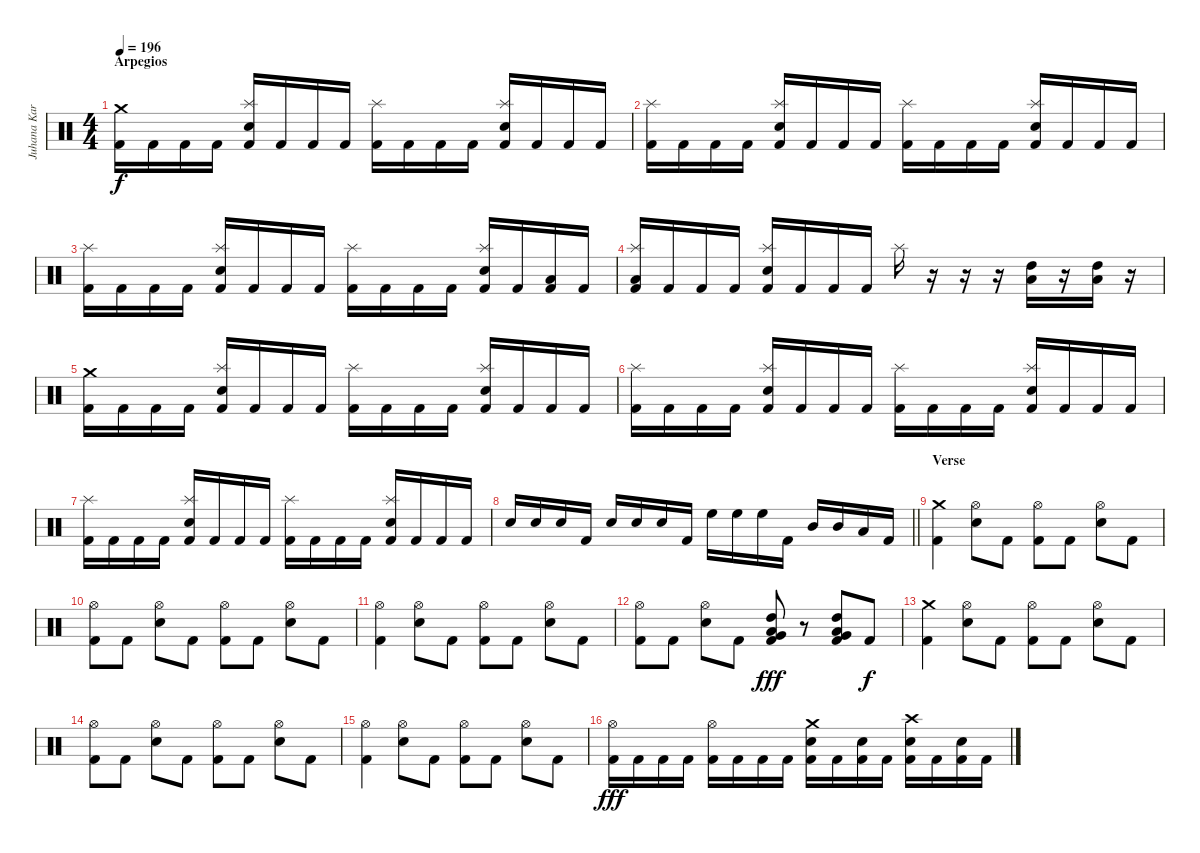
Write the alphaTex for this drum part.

\track ("Juhana Karlsson " "Juhana Kar") {instrument percussion}
\staff {score}
\articulation defaults
\ts (4 4)
\section ("" "Arpegios")
\tempo 196
\clef neutral
\ks c
("Crash medium (hit)" "Kick (hit) 2").16{dy f} "Kick (hit) 2".16 "Kick (hit) 2".16 "Kick (hit) 2".16 ("Splash (hit)" "Electric Snare (hit)" "Kick (hit) 2").16 "Kick (hit) 2".16 "Kick (hit) 2".16 "Kick (hit) 2".16 ("Splash (hit)" "Kick (hit) 2").16 "Kick (hit) 2".16 "Kick (hit) 2".16 "Kick (hit) 2".16 ("Splash (hit)" "Electric Snare (hit)" "Kick (hit) 2").16 "Kick (hit) 2".16 "Kick (hit) 2".16 "Kick (hit) 2".16 |
("Splash (hit)" "Kick (hit) 2").16 "Kick (hit) 2".16 "Kick (hit) 2".16 "Kick (hit) 2".16 ("Splash (hit)" "Electric Snare (hit)" "Kick (hit) 2").16 "Kick (hit) 2".16 "Kick (hit) 2".16 "Kick (hit) 2".16 ("Splash (hit)" "Kick (hit) 2").16 "Kick (hit) 2".16 "Kick (hit) 2".16 "Kick (hit) 2".16 ("Splash (hit)" "Electric Snare (hit)" "Kick (hit) 2").16 "Kick (hit) 2".16 "Kick (hit) 2".16 "Kick (hit) 2".16 |
("Splash (hit)" "Kick (hit) 2").16 "Kick (hit) 2".16 "Kick (hit) 2".16 "Kick (hit) 2".16 ("Splash (hit)" "Electric Snare (hit)" "Kick (hit) 2").16 "Kick (hit) 2".16 "Kick (hit) 2".16 "Kick (hit) 2".16 ("Splash (hit)" "Kick (hit) 2").16 "Kick (hit) 2".16 "Kick (hit) 2".16 "Kick (hit) 2".16 ("Splash (hit)" "Electric Snare (hit)" "Kick (hit) 2").16 "Kick (hit) 2".16 ("Low Tom (hit)" "Kick (hit) 2").16 "Kick (hit) 2".16 |
("Splash (hit)" "Low Tom (hit)" "Kick (hit) 2").16 "Kick (hit) 2".16 "Kick (hit) 2".16 "Kick (hit) 2".16 ("Splash (hit)" "Electric Snare (hit)" "Kick (hit) 2").16 "Kick (hit) 2".16 "Kick (hit) 2".16 "Kick (hit) 2".16 "Splash (hit)".16 r.16 r.16 r.16 ("High Tom (hit)" "Low Tom (hit)").16 r.16 ("High Tom (hit)" "Low Tom (hit)").16 r.16 |
("Crash medium (hit)" "Kick (hit) 2").16 "Kick (hit) 2".16 "Kick (hit) 2".16 "Kick (hit) 2".16 ("Splash (hit)" "Electric Snare (hit)" "Kick (hit) 2").16 "Kick (hit) 2".16 "Kick (hit) 2".16 "Kick (hit) 2".16 ("Splash (hit)" "Kick (hit) 2").16 "Kick (hit) 2".16 "Kick (hit) 2".16 "Kick (hit) 2".16 ("Splash (hit)" "Electric Snare (hit)" "Kick (hit) 2").16 "Kick (hit) 2".16 "Kick (hit) 2".16 "Kick (hit) 2".16 |
("Splash (hit)" "Kick (hit) 2").16 "Kick (hit) 2".16 "Kick (hit) 2".16 "Kick (hit) 2".16 ("Splash (hit)" "Electric Snare (hit)" "Kick (hit) 2").16 "Kick (hit) 2".16 "Kick (hit) 2".16 "Kick (hit) 2".16 ("Splash (hit)" "Kick (hit) 2").16 "Kick (hit) 2".16 "Kick (hit) 2".16 "Kick (hit) 2".16 ("Splash (hit)" "Electric Snare (hit)" "Kick (hit) 2").16 "Kick (hit) 2".16 "Kick (hit) 2".16 "Kick (hit) 2".16 |
("Splash (hit)" "Kick (hit) 2").16 "Kick (hit) 2".16 "Kick (hit) 2".16 "Kick (hit) 2".16 ("Splash (hit)" "Electric Snare (hit)" "Kick (hit) 2").16 "Kick (hit) 2".16 "Kick (hit) 2".16 "Kick (hit) 2".16 ("Splash (hit)" "Kick (hit) 2").16 "Kick (hit) 2".16 "Kick (hit) 2".16 "Kick (hit) 2".16 ("Splash (hit)" "Electric Snare (hit)" "Kick (hit) 2").16 "Kick (hit) 2".16 "Kick (hit) 2".16 "Kick (hit) 2".16 |
\barLineRight lightlight "Electric Snare (hit)".16 "Electric Snare (hit)".16 "Electric Snare (hit)".16 "Kick (hit) 2".16 "Electric Snare (hit)".16 "Electric Snare (hit)".16 "Electric Snare (hit)".16 "Kick (hit) 2".16 "High Floor Tom (hit)".16 "High Floor Tom (hit)".16 "High Floor Tom (hit)".16 "Kick (hit) 2".16 "Mid Tom (hit)".16 "Mid Tom (hit)".16 "Low Tom (hit)".16 "Kick (hit) 2".16
|
\section ("" "Verse")
("Crash medium (hit)" "Kick (hit) 2").4 ("Hi-Hat (open)" "Electric Snare (hit)").8 "Kick (hit) 2".8 ("Hi-Hat (open)" "Kick (hit) 2").8 "Kick (hit) 2".8 ("Hi-Hat (open)" "Electric Snare (hit)").8 "Kick (hit) 2".8 |
("Hi-Hat (open)" "Kick (hit) 2").8 "Kick (hit) 2".8 ("Hi-Hat (open)" "Electric Snare (hit)").8 "Kick (hit) 2".8 ("Hi-Hat (open)" "Kick (hit) 2").8 "Kick (hit) 2".8 ("Hi-Hat (open)" "Electric Snare (hit)").8 "Kick (hit) 2".8 |
("Hi-Hat (open)" "Kick (hit) 2").4 ("Hi-Hat (open)" "Electric Snare (hit)").8 "Kick (hit) 2".8 ("Hi-Hat (open)" "Kick (hit) 2").8 "Kick (hit) 2".8 ("Hi-Hat (open)" "Electric Snare (hit)").8 "Kick (hit) 2".8 |
("Hi-Hat (open)" "Kick (hit) 2").8 "Kick (hit) 2".8 ("Hi-Hat (open)" "Electric Snare (hit)").8 "Kick (hit) 2".8 ("High Tom (hit)" "Low Tom (hit)" "Very Low Tom (hit)" "Kick (hit) 2").8{dy fff} r.8 ("High Tom (hit)" "Low Tom (hit)" "Very Low Tom (hit)" "Kick (hit) 2").8 "Kick (hit) 2".8{dy f} |
("Crash medium (hit)" "Kick (hit) 2").4 ("Hi-Hat (open)" "Electric Snare (hit)").8 "Kick (hit) 2".8 ("Hi-Hat (open)" "Kick (hit) 2").8 "Kick (hit) 2".8 ("Hi-Hat (open)" "Electric Snare (hit)").8 "Kick (hit) 2".8 |
("Hi-Hat (open)" "Kick (hit) 2").8 "Kick (hit) 2".8 ("Hi-Hat (open)" "Electric Snare (hit)").8 "Kick (hit) 2".8 ("Hi-Hat (open)" "Kick (hit) 2").8 "Kick (hit) 2".8 ("Hi-Hat (open)" "Electric Snare (hit)").8 "Kick (hit) 2".8 |
("Hi-Hat (open)" "Kick (hit) 2").4 ("Hi-Hat (open)" "Electric Snare (hit)").8 "Kick (hit) 2".8 ("Hi-Hat (open)" "Kick (hit) 2").8 "Kick (hit) 2".8 ("Hi-Hat (open)" "Electric Snare (hit)").8 "Kick (hit) 2".8 |
("Hi-Hat (open)" "Kick (hit) 2").16{dy fff} "Kick (hit) 2".16 "Kick (hit) 2".16 "Kick (hit) 2".16 ("Hi-Hat (open)" "Kick (hit) 2").16 "Kick (hit) 2".16 "Kick (hit) 2".16 "Kick (hit) 2".16 ("Crash medium (hit)" "Electric Snare (hit)" "Kick (hit) 2").16 "Kick (hit) 2".16 ("Electric Snare (hit)" "Kick (hit) 2").16 "Kick (hit) 2".16 ("Crash high (hit)" "Electric Snare (hit)" "Kick (hit) 2").16 "Kick (hit) 2".16 ("Electric Snare (hit)" "Kick (hit) 2").16 "Kick (hit) 2".16
